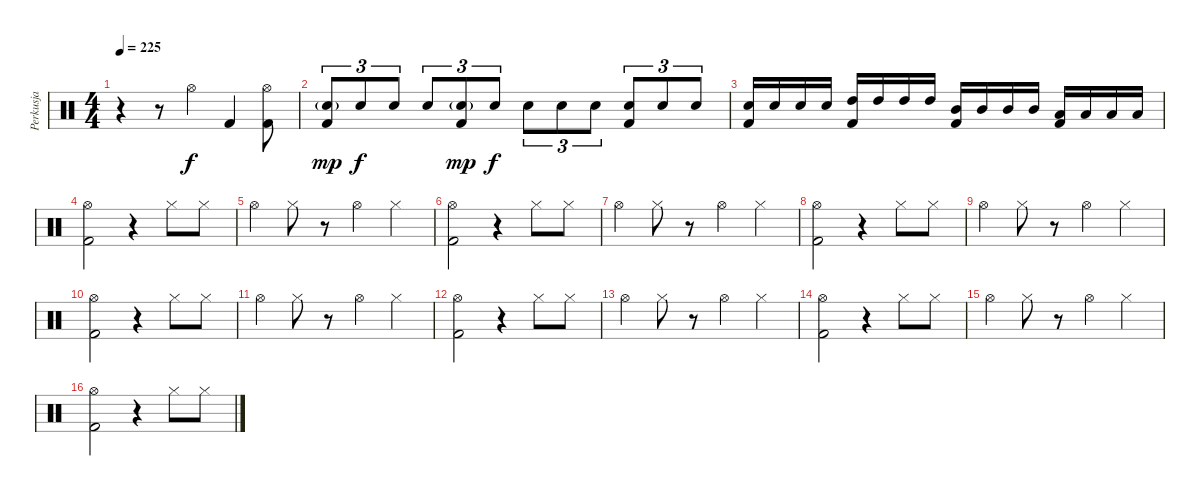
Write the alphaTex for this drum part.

\track ("Perkusja" "Perkusja") {instrument percussion}
\staff {score}
\articulation defaults
\ts (4 4)
\tempo 225
\clef neutral
\ks c
r.4{dy f} r.8 "Hi-Hat (open)".4 "Kick (hit) 2".4 ("Hi-Hat (open)" "Kick (hit) 2").8 |
("Snare (hit) 2"{g} "Kick (hit) 2").8{tu (3 2) dy mp} "Snare (hit) 2".8{tu (3 2) dy f} "Snare (hit) 2".8{tu (3 2)} "Snare (hit) 2".8{tu (3 2)} ("Snare (hit) 2"{g} "Kick (hit) 2").8{tu (3 2) dy mp} "Snare (hit) 2".8{tu (3 2) dy f} "Snare (hit) 2".8{tu (3 2)} "Snare (hit) 2".8{tu (3 2)} "Snare (hit) 2".8{tu (3 2)} ("Snare (hit) 2" "Kick (hit) 2").8{tu (3 2)} "Snare (hit) 2".8{tu (3 2)} "Snare (hit) 2".8{tu (3 2)} |
("Snare (hit) 2" "Kick (hit) 2").16 "Snare (hit) 2".16 "Snare (hit) 2".16 "Snare (hit) 2".16 ("High Tom (hit)" "Kick (hit) 2").16 "High Tom (hit)".16 "High Tom (hit)".16 "High Tom (hit)".16 ("Mid Tom (hit)" "Kick (hit) 2").16 "Mid Tom (hit)".16 "Mid Tom (hit)".16 "Mid Tom (hit)".16 ("Low Tom (hit)" "Kick (hit) 2").16 "Low Tom (hit)".16 "Low Tom (hit)".16 "Low Tom (hit)".16 |
("Hi-Hat (open)" "Kick (hit) 2").2 r.4 "Hi-Hat (closed)".8 "Hi-Hat (closed)".8 |
"Hi-Hat (open)".4 "Hi-Hat (closed)".8 r.8 "Hi-Hat (open)".4 "Hi-Hat (closed)".4 |
("Hi-Hat (open)" "Kick (hit) 2").2 r.4 "Hi-Hat (closed)".8 "Hi-Hat (closed)".8 |
"Hi-Hat (open)".4 "Hi-Hat (closed)".8 r.8 "Hi-Hat (open)".4 "Hi-Hat (closed)".4 |
("Hi-Hat (open)" "Kick (hit) 2").2 r.4 "Hi-Hat (closed)".8 "Hi-Hat (closed)".8 |
"Hi-Hat (open)".4 "Hi-Hat (closed)".8 r.8 "Hi-Hat (open)".4 "Hi-Hat (closed)".4 |
("Hi-Hat (open)" "Kick (hit) 2").2 r.4 "Hi-Hat (closed)".8 "Hi-Hat (closed)".8 |
"Hi-Hat (open)".4 "Hi-Hat (closed)".8 r.8 "Hi-Hat (open)".4 "Hi-Hat (closed)".4 |
("Hi-Hat (open)" "Kick (hit) 2").2 r.4 "Hi-Hat (closed)".8 "Hi-Hat (closed)".8 |
"Hi-Hat (open)".4 "Hi-Hat (closed)".8 r.8 "Hi-Hat (open)".4 "Hi-Hat (closed)".4 |
("Hi-Hat (open)" "Kick (hit) 2").2 r.4 "Hi-Hat (closed)".8 "Hi-Hat (closed)".8 |
"Hi-Hat (open)".4 "Hi-Hat (closed)".8 r.8 "Hi-Hat (open)".4 "Hi-Hat (closed)".4 |
("Hi-Hat (open)" "Kick (hit) 2").2 r.4 "Hi-Hat (closed)".8 "Hi-Hat (closed)".8
